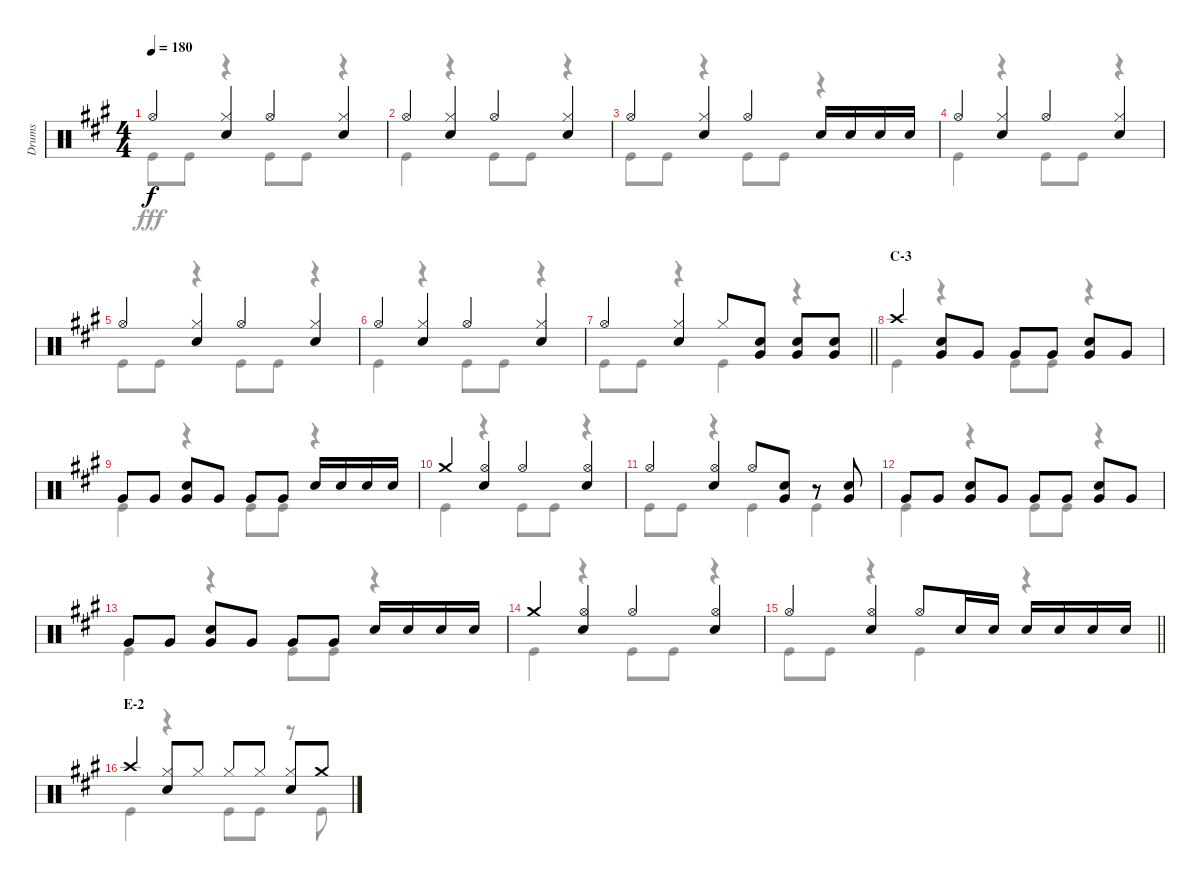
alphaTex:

\track ("Drums" "Drums") {instrument percussion}
\staff {score}
\articulation defaults
\voice
\ts (4 4)
\tempo 180
\clef neutral
\ks a "Hi-Hat (open)".4{dy f}
("Hi-Hat (closed)" "Snare (hit) 2").4 "Hi-Hat (open)".4 ("Hi-Hat (closed)" "Snare (hit) 2").4 |
"Hi-Hat (open)".4 ("Hi-Hat (closed)" "Snare (hit) 2").4 "Hi-Hat (open)".4 ("Hi-Hat (closed)" "Snare (hit) 2").4 |
"Hi-Hat (open)".4 ("Hi-Hat (closed)" "Snare (hit) 2").4 "Hi-Hat (open)".4 "Snare (hit) 2".16 "Snare (hit) 2".16 "Snare (hit) 2".16 "Snare (hit) 2".16 |
"Hi-Hat (open)".4 ("Hi-Hat (closed)" "Snare (hit) 2").4 "Hi-Hat (open)".4 ("Hi-Hat (closed)" "Snare (hit) 2").4 |
"Hi-Hat (open)".4 ("Hi-Hat (closed)" "Snare (hit) 2").4 "Hi-Hat (open)".4 ("Hi-Hat (closed)" "Snare (hit) 2").4 |
"Hi-Hat (open)".4 ("Hi-Hat (closed)" "Snare (hit) 2").4 "Hi-Hat (open)".4 ("Hi-Hat (closed)" "Snare (hit) 2").4 |
\barLineRight lightlight "Hi-Hat (open)".4
("Hi-Hat (closed)" "Snare (hit) 2").4 "Hi-Hat (closed)".8 ("Snare (hit) 2" "Very Low Tom (hit)").8 ("Snare (hit) 2" "Very Low Tom (hit)").8 ("Snare (hit) 2" "Very Low Tom (hit)").8 |
\section ("" "C-3")
"Crash high (hit)".4 ("Snare (hit) 2" "Very Low Tom (hit)").8 "Very Low Tom (hit)".8 "Very Low Tom (hit)".8 "Very Low Tom (hit)".8 ("Snare (hit) 2" "Very Low Tom (hit)").8 "Very Low Tom (hit)".8 |
"Very Low Tom (hit)".8 "Very Low Tom (hit)".8 ("Snare (hit) 2" "Very Low Tom (hit)").8 "Very Low Tom (hit)".8 "Very Low Tom (hit)".8 "Very Low Tom (hit)".8 "Snare (hit) 2".16 "Snare (hit) 2".16 "Snare (hit) 2".16 "Snare (hit) 2".16 |
"Crash medium (hit)".4 ("Hi-Hat (open)" "Snare (hit) 2").4 "Hi-Hat (open)".4 ("Hi-Hat (open)" "Snare (hit) 2").4 |
"Hi-Hat (open)".4 ("Hi-Hat (open)" "Snare (hit) 2").4 "Hi-Hat (open)".8 ("Snare (hit) 2" "Very Low Tom (hit)").8 r.8 ("Snare (hit) 2" "Very Low Tom (hit)").8 |
"Very Low Tom (hit)".8 "Very Low Tom (hit)".8 ("Snare (hit) 2" "Very Low Tom (hit)").8 "Very Low Tom (hit)".8 "Very Low Tom (hit)".8 "Very Low Tom (hit)".8 ("Snare (hit) 2" "Very Low Tom (hit)").8 "Very Low Tom (hit)".8 |
"Very Low Tom (hit)".8 "Very Low Tom (hit)".8 ("Snare (hit) 2" "Very Low Tom (hit)").8 "Very Low Tom (hit)".8 "Very Low Tom (hit)".8 "Very Low Tom (hit)".8 "Snare (hit) 2".16 "Snare (hit) 2".16 "Snare (hit) 2".16 "Snare (hit) 2".16 |
"Crash medium (hit)".4 ("Hi-Hat (open)" "Snare (hit) 2").4 "Hi-Hat (open)".4 ("Hi-Hat (open)" "Snare (hit) 2").4 |
\barLineRight lightlight "Hi-Hat (open)".4
("Hi-Hat (open)" "Snare (hit) 2").4 "Hi-Hat (open)".8 "Snare (hit) 2".16 "Snare (hit) 2".16 "Snare (hit) 2".16 "Snare (hit) 2".16 "Snare (hit) 2".16 "Snare (hit) 2".16 |
\section ("" "E-2")
"Crash high (hit)".4 ("Hi-Hat (closed)" "Snare (hit) 2").8 "Hi-Hat (closed)".8 "Hi-Hat (closed)".8 "Hi-Hat (closed)".8 ("Hi-Hat (closed)" "Snare (hit) 2").8 "Crash medium (hit)".8
\voice
\clef neutral
\ottava regular
\simile none
\ks a "Kick (hit)".8{dy fff} "Kick (hit)".8
r.4 "Kick (hit)".8 "Kick (hit)".8 r.4 |
"Kick (hit)".4 r.4 "Kick (hit)".8 "Kick (hit)".8 r.4 |
"Kick (hit)".8 "Kick (hit)".8 r.4 "Kick (hit)".8 "Kick (hit)".8 r.4 |
"Kick (hit)".4 r.4 "Kick (hit)".8 "Kick (hit)".8 r.4 |
"Kick (hit)".8 "Kick (hit)".8 r.4 "Kick (hit)".8 "Kick (hit)".8 r.4 |
"Kick (hit)".4 r.4 "Kick (hit)".8 "Kick (hit)".8 r.4 |
\barLineRight lightlight "Kick (hit)".8 "Kick (hit)".8
r.4 "Kick (hit)".4 r.4 |
"Kick (hit)".4 r.4 "Kick (hit)".8 "Kick (hit)".8 r.4 |
"Kick (hit)".4 r.4 "Kick (hit)".8 "Kick (hit)".8 r.4 |
"Kick (hit)".4 r.4 "Kick (hit)".8 "Kick (hit)".8 r.4 |
"Kick (hit)".8 "Kick (hit)".8 r.4 "Kick (hit)".4 "Kick (hit)".4 |
"Kick (hit)".4 r.4 "Kick (hit)".8 "Kick (hit)".8 r.4 |
"Kick (hit)".4 r.4 "Kick (hit)".8 "Kick (hit)".8 r.4 |
"Kick (hit)".4 r.4 "Kick (hit)".8 "Kick (hit)".8 r.4 |
\barLineRight lightlight "Kick (hit)".8 "Kick (hit)".8
r.4 "Kick (hit)".4 r.4 |
"Kick (hit)".4 r.4 "Kick (hit)".8 "Kick (hit)".8 r.8 "Kick (hit)".8
